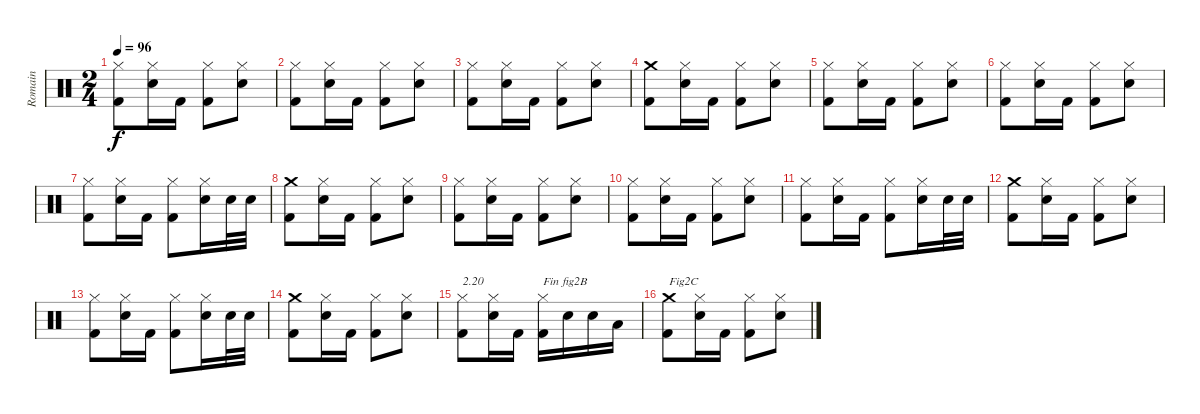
\track ("Romain" "Romain") {instrument percussion}
\staff {score}
\articulation defaults
\ts (2 4)
\tempo 96
\clef neutral
\ks c
("Kick (hit) 2" "Hi-Hat (closed)").8{dy f} ("Electric Snare (hit)" "Hi-Hat (closed)").16 "Kick (hit) 2".16 ("Kick (hit) 2" "Hi-Hat (closed)").8 ("Electric Snare (hit)" "Hi-Hat (closed)").8 |
("Kick (hit) 2" "Hi-Hat (closed)").8 ("Electric Snare (hit)" "Hi-Hat (closed)").16 "Kick (hit) 2".16 ("Kick (hit) 2" "Hi-Hat (closed)").8 ("Electric Snare (hit)" "Hi-Hat (closed)").8 |
("Kick (hit) 2" "Hi-Hat (closed)").8 ("Electric Snare (hit)" "Hi-Hat (closed)").16 "Kick (hit) 2".16 ("Kick (hit) 2" "Hi-Hat (closed)").8 ("Electric Snare (hit)" "Hi-Hat (closed)").8 |
("Kick (hit) 2" "Crash medium (hit)").8 ("Electric Snare (hit)" "Hi-Hat (closed)").16 "Kick (hit) 2".16 ("Kick (hit) 2" "Hi-Hat (closed)").8 ("Electric Snare (hit)" "Hi-Hat (closed)").8 |
("Kick (hit) 2" "Hi-Hat (closed)").8 ("Electric Snare (hit)" "Hi-Hat (closed)").16 "Kick (hit) 2".16 ("Kick (hit) 2" "Hi-Hat (closed)").8 ("Electric Snare (hit)" "Hi-Hat (closed)").8 |
("Kick (hit) 2" "Hi-Hat (closed)").8 ("Electric Snare (hit)" "Hi-Hat (closed)").16 "Kick (hit) 2".16 ("Kick (hit) 2" "Hi-Hat (closed)").8 ("Electric Snare (hit)" "Hi-Hat (closed)").8 |
("Kick (hit) 2" "Hi-Hat (closed)").8 ("Electric Snare (hit)" "Hi-Hat (closed)").16 "Kick (hit) 2".16 ("Kick (hit) 2" "Hi-Hat (closed)").8 ("Electric Snare (hit)" "Hi-Hat (closed)").16 "Electric Snare (hit)".32 "Electric Snare (hit)".32 |
("Kick (hit) 2" "Crash medium (hit)").8 ("Electric Snare (hit)" "Hi-Hat (closed)").16 "Kick (hit) 2".16 ("Kick (hit) 2" "Hi-Hat (closed)").8 ("Electric Snare (hit)" "Hi-Hat (closed)").8 |
("Kick (hit) 2" "Hi-Hat (closed)").8 ("Electric Snare (hit)" "Hi-Hat (closed)").16 "Kick (hit) 2".16 ("Kick (hit) 2" "Hi-Hat (closed)").8 ("Electric Snare (hit)" "Hi-Hat (closed)").8 |
("Kick (hit) 2" "Hi-Hat (closed)").8 ("Electric Snare (hit)" "Hi-Hat (closed)").16 "Kick (hit) 2".16 ("Kick (hit) 2" "Hi-Hat (closed)").8 ("Electric Snare (hit)" "Hi-Hat (closed)").8 |
("Kick (hit) 2" "Hi-Hat (closed)").8 ("Electric Snare (hit)" "Hi-Hat (closed)").16 "Kick (hit) 2".16 ("Kick (hit) 2" "Hi-Hat (closed)").8 ("Electric Snare (hit)" "Hi-Hat (closed)").16 "Electric Snare (hit)".32 "Electric Snare (hit)".32 |
("Kick (hit) 2" "Crash medium (hit)").8 ("Electric Snare (hit)" "Hi-Hat (closed)").16 "Kick (hit) 2".16 ("Kick (hit) 2" "Hi-Hat (closed)").8 ("Electric Snare (hit)" "Hi-Hat (closed)").8 |
("Kick (hit) 2" "Hi-Hat (closed)").8 ("Electric Snare (hit)" "Hi-Hat (closed)").16 "Kick (hit) 2".16 ("Kick (hit) 2" "Hi-Hat (closed)").8 ("Electric Snare (hit)" "Hi-Hat (closed)").16 "Electric Snare (hit)".32 "Electric Snare (hit)".32 |
("Kick (hit) 2" "Crash medium (hit)").8 ("Electric Snare (hit)" "Hi-Hat (closed)").16 "Kick (hit) 2".16 ("Kick (hit) 2" "Hi-Hat (closed)").8 ("Electric Snare (hit)" "Hi-Hat (closed)").8 |
("Kick (hit) 2" "Hi-Hat (closed)").8{txt "2.20"} ("Electric Snare (hit)" "Hi-Hat (closed)").16 "Kick (hit) 2".16 ("Kick (hit) 2" "Hi-Hat (closed)").16{txt "Fin fig2B"} "Electric Snare (hit)".16 "Electric Snare (hit)".16 "Low Tom (hit)".16 |
("Kick (hit) 2" "Crash medium (hit)").8{txt "Fig2C"} ("Electric Snare (hit)" "Hi-Hat (closed)").16 "Kick (hit) 2".16 ("Kick (hit) 2" "Hi-Hat (closed)").8 ("Electric Snare (hit)" "Hi-Hat (closed)").8
